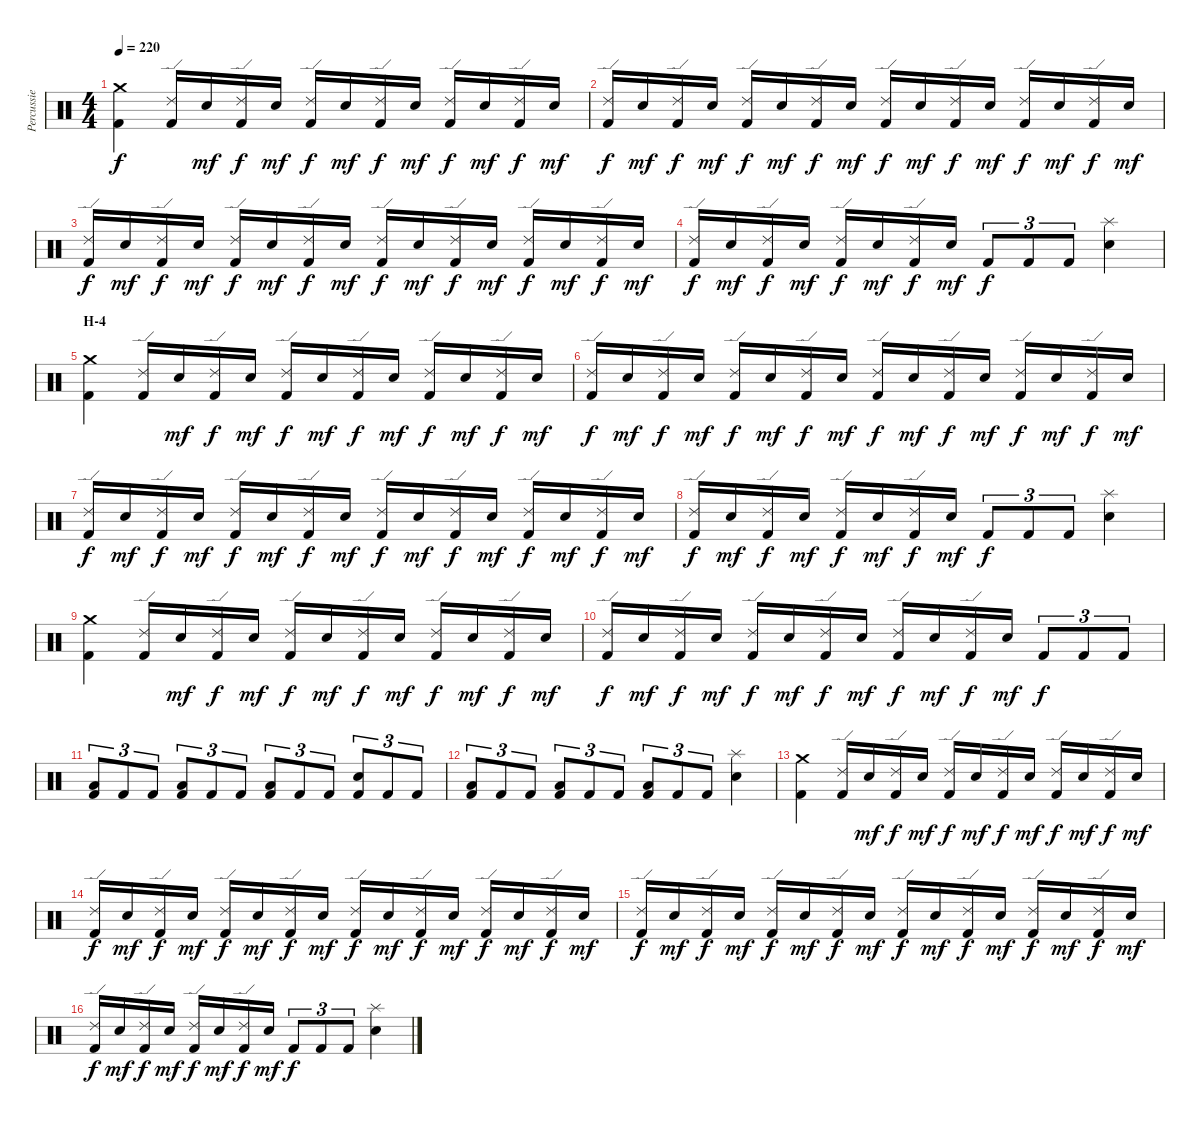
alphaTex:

\track ("Percussie" "Percussie") {instrument percussion}
\staff {score}
\articulation defaults
\ts (4 4)
\tempo 220
\clef neutral
\ks c
("Crash medium (hit)" "Kick (hit) 2").4{dy f} ("Ride (edge) 2" "Kick (hit) 2").16 "Electric Snare (hit)".16{dy mf} ("Ride (edge) 2" "Kick (hit) 2").16{dy f} "Electric Snare (hit)".16{dy mf} ("Ride (edge) 2" "Kick (hit) 2").16{dy f} "Electric Snare (hit)".16{dy mf} ("Ride (edge) 2" "Kick (hit) 2").16{dy f} "Electric Snare (hit)".16{dy mf} ("Ride (edge) 2" "Kick (hit) 2").16{dy f} "Electric Snare (hit)".16{dy mf} ("Ride (edge) 2" "Kick (hit) 2").16{dy f} "Electric Snare (hit)".16{dy mf} |
("Ride (edge) 2" "Kick (hit) 2").16{dy f} "Electric Snare (hit)".16{dy mf} ("Ride (edge) 2" "Kick (hit) 2").16{dy f} "Electric Snare (hit)".16{dy mf} ("Ride (edge) 2" "Kick (hit) 2").16{dy f} "Electric Snare (hit)".16{dy mf} ("Ride (edge) 2" "Kick (hit) 2").16{dy f} "Electric Snare (hit)".16{dy mf} ("Ride (edge) 2" "Kick (hit) 2").16{dy f} "Electric Snare (hit)".16{dy mf} ("Ride (edge) 2" "Kick (hit) 2").16{dy f} "Electric Snare (hit)".16{dy mf} ("Ride (edge) 2" "Kick (hit) 2").16{dy f} "Electric Snare (hit)".16{dy mf} ("Ride (edge) 2" "Kick (hit) 2").16{dy f} "Electric Snare (hit)".16{dy mf} |
("Ride (edge) 2" "Kick (hit) 2").16{dy f} "Electric Snare (hit)".16{dy mf} ("Ride (edge) 2" "Kick (hit) 2").16{dy f} "Electric Snare (hit)".16{dy mf} ("Ride (edge) 2" "Kick (hit) 2").16{dy f} "Electric Snare (hit)".16{dy mf} ("Ride (edge) 2" "Kick (hit) 2").16{dy f} "Electric Snare (hit)".16{dy mf} ("Ride (edge) 2" "Kick (hit) 2").16{dy f} "Electric Snare (hit)".16{dy mf} ("Ride (edge) 2" "Kick (hit) 2").16{dy f} "Electric Snare (hit)".16{dy mf} ("Ride (edge) 2" "Kick (hit) 2").16{dy f} "Electric Snare (hit)".16{dy mf} ("Ride (edge) 2" "Kick (hit) 2").16{dy f} "Electric Snare (hit)".16{dy mf} |
("Ride (edge) 2" "Kick (hit) 2").16{dy f} "Electric Snare (hit)".16{dy mf} ("Ride (edge) 2" "Kick (hit) 2").16{dy f} "Electric Snare (hit)".16{dy mf} ("Ride (edge) 2" "Kick (hit) 2").16{dy f} "Electric Snare (hit)".16{dy mf} ("Ride (edge) 2" "Kick (hit) 2").16{dy f} "Electric Snare (hit)".16{dy mf} "Kick (hit) 2".8{tu (3 2) dy f} "Kick (hit) 2".8{tu (3 2)} "Kick (hit) 2".8{tu (3 2)} ("Splash (hit)" "Electric Snare (hit)").4 |
\section ("" "H-4")
("Crash medium (hit)" "Kick (hit) 2").4 ("Ride (edge) 2" "Kick (hit) 2").16 "Electric Snare (hit)".16{dy mf} ("Ride (edge) 2" "Kick (hit) 2").16{dy f} "Electric Snare (hit)".16{dy mf} ("Ride (edge) 2" "Kick (hit) 2").16{dy f} "Electric Snare (hit)".16{dy mf} ("Ride (edge) 2" "Kick (hit) 2").16{dy f} "Electric Snare (hit)".16{dy mf} ("Ride (edge) 2" "Kick (hit) 2").16{dy f} "Electric Snare (hit)".16{dy mf} ("Ride (edge) 2" "Kick (hit) 2").16{dy f} "Electric Snare (hit)".16{dy mf} |
("Ride (edge) 2" "Kick (hit) 2").16{dy f} "Electric Snare (hit)".16{dy mf} ("Ride (edge) 2" "Kick (hit) 2").16{dy f} "Electric Snare (hit)".16{dy mf} ("Ride (edge) 2" "Kick (hit) 2").16{dy f} "Electric Snare (hit)".16{dy mf} ("Ride (edge) 2" "Kick (hit) 2").16{dy f} "Electric Snare (hit)".16{dy mf} ("Ride (edge) 2" "Kick (hit) 2").16{dy f} "Electric Snare (hit)".16{dy mf} ("Ride (edge) 2" "Kick (hit) 2").16{dy f} "Electric Snare (hit)".16{dy mf} ("Ride (edge) 2" "Kick (hit) 2").16{dy f} "Electric Snare (hit)".16{dy mf} ("Ride (edge) 2" "Kick (hit) 2").16{dy f} "Electric Snare (hit)".16{dy mf} |
("Ride (edge) 2" "Kick (hit) 2").16{dy f} "Electric Snare (hit)".16{dy mf} ("Ride (edge) 2" "Kick (hit) 2").16{dy f} "Electric Snare (hit)".16{dy mf} ("Ride (edge) 2" "Kick (hit) 2").16{dy f} "Electric Snare (hit)".16{dy mf} ("Ride (edge) 2" "Kick (hit) 2").16{dy f} "Electric Snare (hit)".16{dy mf} ("Ride (edge) 2" "Kick (hit) 2").16{dy f} "Electric Snare (hit)".16{dy mf} ("Ride (edge) 2" "Kick (hit) 2").16{dy f} "Electric Snare (hit)".16{dy mf} ("Ride (edge) 2" "Kick (hit) 2").16{dy f} "Electric Snare (hit)".16{dy mf} ("Ride (edge) 2" "Kick (hit) 2").16{dy f} "Electric Snare (hit)".16{dy mf} |
("Ride (edge) 2" "Kick (hit) 2").16{dy f} "Electric Snare (hit)".16{dy mf} ("Ride (edge) 2" "Kick (hit) 2").16{dy f} "Electric Snare (hit)".16{dy mf} ("Ride (edge) 2" "Kick (hit) 2").16{dy f} "Electric Snare (hit)".16{dy mf} ("Ride (edge) 2" "Kick (hit) 2").16{dy f} "Electric Snare (hit)".16{dy mf} "Kick (hit) 2".8{tu (3 2) dy f} "Kick (hit) 2".8{tu (3 2)} "Kick (hit) 2".8{tu (3 2)} ("Splash (hit)" "Electric Snare (hit)").4 |
("Crash medium (hit)" "Kick (hit) 2").4 ("Ride (edge) 2" "Kick (hit) 2").16 "Electric Snare (hit)".16{dy mf} ("Ride (edge) 2" "Kick (hit) 2").16{dy f} "Electric Snare (hit)".16{dy mf} ("Ride (edge) 2" "Kick (hit) 2").16{dy f} "Electric Snare (hit)".16{dy mf} ("Ride (edge) 2" "Kick (hit) 2").16{dy f} "Electric Snare (hit)".16{dy mf} ("Ride (edge) 2" "Kick (hit) 2").16{dy f} "Electric Snare (hit)".16{dy mf} ("Ride (edge) 2" "Kick (hit) 2").16{dy f} "Electric Snare (hit)".16{dy mf} |
("Ride (edge) 2" "Kick (hit) 2").16{dy f} "Electric Snare (hit)".16{dy mf} ("Ride (edge) 2" "Kick (hit) 2").16{dy f} "Electric Snare (hit)".16{dy mf} ("Ride (edge) 2" "Kick (hit) 2").16{dy f} "Electric Snare (hit)".16{dy mf} ("Ride (edge) 2" "Kick (hit) 2").16{dy f} "Electric Snare (hit)".16{dy mf} ("Ride (edge) 2" "Kick (hit) 2").16{dy f} "Electric Snare (hit)".16{dy mf} ("Ride (edge) 2" "Kick (hit) 2").16{dy f} "Electric Snare (hit)".16{dy mf} "Kick (hit) 2".8{tu (3 2) dy f} "Kick (hit) 2".8{tu (3 2)} "Kick (hit) 2".8{tu (3 2)} |
("Low Tom (hit)" "Kick (hit) 2").8{tu (3 2)} "Kick (hit) 2".8{tu (3 2)} "Kick (hit) 2".8{tu (3 2)} ("Low Tom (hit)" "Kick (hit) 2").8{tu (3 2)} "Kick (hit) 2".8{tu (3 2)} "Kick (hit) 2".8{tu (3 2)} ("Low Tom (hit)" "Kick (hit) 2").8{tu (3 2)} "Kick (hit) 2".8{tu (3 2)} "Kick (hit) 2".8{tu (3 2)} ("Electric Snare (hit)" "Kick (hit) 2").8{tu (3 2)} "Kick (hit) 2".8{tu (3 2)} "Kick (hit) 2".8{tu (3 2)} |
("Low Tom (hit)" "Kick (hit) 2").8{tu (3 2)} "Kick (hit) 2".8{tu (3 2)} "Kick (hit) 2".8{tu (3 2)} ("Low Tom (hit)" "Kick (hit) 2").8{tu (3 2)} "Kick (hit) 2".8{tu (3 2)} "Kick (hit) 2".8{tu (3 2)} ("Low Tom (hit)" "Kick (hit) 2").8{tu (3 2)} "Kick (hit) 2".8{tu (3 2)} "Kick (hit) 2".8{tu (3 2)} ("Splash (hit)" "Electric Snare (hit)").4 |
("Crash medium (hit)" "Kick (hit) 2").4 ("Ride (edge) 2" "Kick (hit) 2").16 "Electric Snare (hit)".16{dy mf} ("Ride (edge) 2" "Kick (hit) 2").16{dy f} "Electric Snare (hit)".16{dy mf} ("Ride (edge) 2" "Kick (hit) 2").16{dy f} "Electric Snare (hit)".16{dy mf} ("Ride (edge) 2" "Kick (hit) 2").16{dy f} "Electric Snare (hit)".16{dy mf} ("Ride (edge) 2" "Kick (hit) 2").16{dy f} "Electric Snare (hit)".16{dy mf} ("Ride (edge) 2" "Kick (hit) 2").16{dy f} "Electric Snare (hit)".16{dy mf} |
("Ride (edge) 2" "Kick (hit) 2").16{dy f} "Electric Snare (hit)".16{dy mf} ("Ride (edge) 2" "Kick (hit) 2").16{dy f} "Electric Snare (hit)".16{dy mf} ("Ride (edge) 2" "Kick (hit) 2").16{dy f} "Electric Snare (hit)".16{dy mf} ("Ride (edge) 2" "Kick (hit) 2").16{dy f} "Electric Snare (hit)".16{dy mf} ("Ride (edge) 2" "Kick (hit) 2").16{dy f} "Electric Snare (hit)".16{dy mf} ("Ride (edge) 2" "Kick (hit) 2").16{dy f} "Electric Snare (hit)".16{dy mf} ("Ride (edge) 2" "Kick (hit) 2").16{dy f} "Electric Snare (hit)".16{dy mf} ("Ride (edge) 2" "Kick (hit) 2").16{dy f} "Electric Snare (hit)".16{dy mf} |
("Ride (edge) 2" "Kick (hit) 2").16{dy f} "Electric Snare (hit)".16{dy mf} ("Ride (edge) 2" "Kick (hit) 2").16{dy f} "Electric Snare (hit)".16{dy mf} ("Ride (edge) 2" "Kick (hit) 2").16{dy f} "Electric Snare (hit)".16{dy mf} ("Ride (edge) 2" "Kick (hit) 2").16{dy f} "Electric Snare (hit)".16{dy mf} ("Ride (edge) 2" "Kick (hit) 2").16{dy f} "Electric Snare (hit)".16{dy mf} ("Ride (edge) 2" "Kick (hit) 2").16{dy f} "Electric Snare (hit)".16{dy mf} ("Ride (edge) 2" "Kick (hit) 2").16{dy f} "Electric Snare (hit)".16{dy mf} ("Ride (edge) 2" "Kick (hit) 2").16{dy f} "Electric Snare (hit)".16{dy mf} |
("Ride (edge) 2" "Kick (hit) 2").16{dy f} "Electric Snare (hit)".16{dy mf} ("Ride (edge) 2" "Kick (hit) 2").16{dy f} "Electric Snare (hit)".16{dy mf} ("Ride (edge) 2" "Kick (hit) 2").16{dy f} "Electric Snare (hit)".16{dy mf} ("Ride (edge) 2" "Kick (hit) 2").16{dy f} "Electric Snare (hit)".16{dy mf} "Kick (hit) 2".8{tu (3 2) dy f} "Kick (hit) 2".8{tu (3 2)} "Kick (hit) 2".8{tu (3 2)} ("Splash (hit)" "Electric Snare (hit)").4
